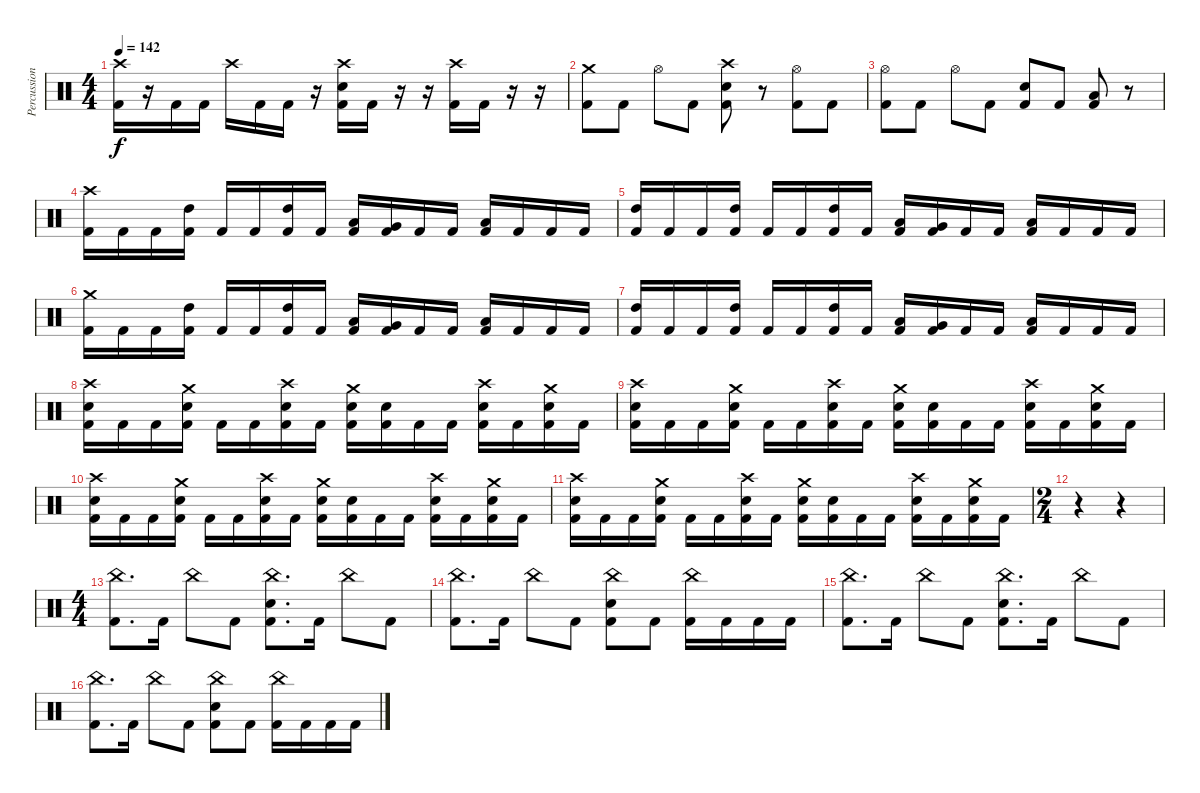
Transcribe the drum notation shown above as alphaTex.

\track ("Percussion" "Percussion") {instrument percussion}
\staff {score}
\articulation defaults
\ts (4 4)
\tempo 142
\clef neutral
\ks c
("Crash high (hit)" "Kick (hit) 2").16{dy f} r.16 "Kick (hit) 2".16 "Kick (hit) 2".16 "Crash high (hit)".16 "Kick (hit) 2".16 "Kick (hit) 2".16 r.16 ("Crash high (hit)" "Snare (hit) 2" "Kick (hit) 2").16 "Kick (hit) 2".16 r.16 r.16 ("Crash high (hit)" "Kick (hit) 2").16 "Kick (hit) 2".16 r.16 r.16 |
("Crash medium (hit)" "Kick (hit) 2").8 "Kick (hit) 2".8 "Hi-Hat (open)".8 "Kick (hit) 2".8 ("Crash high (hit)" "Snare (hit) 2" "Kick (hit) 2").8 r.8 ("Hi-Hat (open)" "Kick (hit) 2").8 "Kick (hit) 2".8 |
("Hi-Hat (open)" "Kick (hit) 2").8 "Kick (hit) 2".8 "Hi-Hat (open)".8 "Kick (hit) 2".8 ("Snare (hit) 2" "Kick (hit) 2").8 "Kick (hit) 2".8 ("Low Floor Tom (hit)" "Kick (hit) 2").8 r.8 |
("Crash high (hit)" "Kick (hit) 2").16 "Kick (hit) 2".16 "Kick (hit) 2".16 ("High Tom (hit)" "Kick (hit) 2").16 "Kick (hit) 2".16 "Kick (hit) 2".16 ("High Tom (hit)" "Kick (hit) 2").16 "Kick (hit) 2".16 ("Low Floor Tom (hit)" "Kick (hit) 2").16 ("Very Low Tom (hit)" "Kick (hit) 2").16 "Kick (hit) 2".16 "Kick (hit) 2".16 ("Low Floor Tom (hit)" "Kick (hit) 2").16 "Kick (hit) 2".16 "Kick (hit) 2".16 "Kick (hit) 2".16 |
("High Tom (hit)" "Kick (hit) 2").16 "Kick (hit) 2".16 "Kick (hit) 2".16 ("High Tom (hit)" "Kick (hit) 2").16 "Kick (hit) 2".16 "Kick (hit) 2".16 ("High Tom (hit)" "Kick (hit) 2").16 "Kick (hit) 2".16 ("Low Floor Tom (hit)" "Kick (hit) 2").16 ("Very Low Tom (hit)" "Kick (hit) 2").16 "Kick (hit) 2".16 "Kick (hit) 2".16 ("Low Floor Tom (hit)" "Kick (hit) 2").16 "Kick (hit) 2".16 "Kick (hit) 2".16 "Kick (hit) 2".16 |
("Crash medium (hit)" "Kick (hit) 2").16 "Kick (hit) 2".16 "Kick (hit) 2".16 ("High Tom (hit)" "Kick (hit) 2").16 "Kick (hit) 2".16 "Kick (hit) 2".16 ("High Tom (hit)" "Kick (hit) 2").16 "Kick (hit) 2".16 ("Low Floor Tom (hit)" "Kick (hit) 2").16 ("Very Low Tom (hit)" "Kick (hit) 2").16 "Kick (hit) 2".16 "Kick (hit) 2".16 ("Low Floor Tom (hit)" "Kick (hit) 2").16 "Kick (hit) 2".16 "Kick (hit) 2".16 "Kick (hit) 2".16 |
("High Tom (hit)" "Kick (hit) 2").16 "Kick (hit) 2".16 "Kick (hit) 2".16 ("High Tom (hit)" "Kick (hit) 2").16 "Kick (hit) 2".16 "Kick (hit) 2".16 ("High Tom (hit)" "Kick (hit) 2").16 "Kick (hit) 2".16 ("Low Floor Tom (hit)" "Kick (hit) 2").16 ("Very Low Tom (hit)" "Kick (hit) 2").16 "Kick (hit) 2".16 "Kick (hit) 2".16 ("Low Floor Tom (hit)" "Kick (hit) 2").16 "Kick (hit) 2".16 "Kick (hit) 2".16 "Kick (hit) 2".16 |
("Crash high (hit)" "Snare (hit) 2" "Kick (hit) 2").16 "Kick (hit) 2".16 "Kick (hit) 2".16 ("Crash medium (hit)" "Snare (hit) 2" "Kick (hit) 2").16 "Kick (hit) 2".16 "Kick (hit) 2".16 ("Crash high (hit)" "Snare (hit) 2" "Kick (hit) 2").16 "Kick (hit) 2".16 ("Crash medium (hit)" "Snare (hit) 2" "Kick (hit) 2").16 ("Snare (hit) 2" "Kick (hit) 2").16 "Kick (hit) 2".16 "Kick (hit) 2".16 ("Crash high (hit)" "Snare (hit) 2" "Kick (hit) 2").16 "Kick (hit) 2".16 ("Crash medium (hit)" "Snare (hit) 2" "Kick (hit) 2").16 "Kick (hit) 2".16 |
("Crash high (hit)" "Snare (hit) 2" "Kick (hit) 2").16 "Kick (hit) 2".16 "Kick (hit) 2".16 ("Crash medium (hit)" "Snare (hit) 2" "Kick (hit) 2").16 "Kick (hit) 2".16 "Kick (hit) 2".16 ("Crash high (hit)" "Snare (hit) 2" "Kick (hit) 2").16 "Kick (hit) 2".16 ("Crash medium (hit)" "Snare (hit) 2" "Kick (hit) 2").16 ("Snare (hit) 2" "Kick (hit) 2").16 "Kick (hit) 2".16 "Kick (hit) 2".16 ("Crash high (hit)" "Snare (hit) 2" "Kick (hit) 2").16 "Kick (hit) 2".16 ("Crash medium (hit)" "Snare (hit) 2" "Kick (hit) 2").16 "Kick (hit) 2".16 |
("Crash high (hit)" "Snare (hit) 2" "Kick (hit) 2").16 "Kick (hit) 2".16 "Kick (hit) 2".16 ("Crash medium (hit)" "Snare (hit) 2" "Kick (hit) 2").16 "Kick (hit) 2".16 "Kick (hit) 2".16 ("Crash high (hit)" "Snare (hit) 2" "Kick (hit) 2").16 "Kick (hit) 2".16 ("Crash medium (hit)" "Snare (hit) 2" "Kick (hit) 2").16 ("Snare (hit) 2" "Kick (hit) 2").16 "Kick (hit) 2".16 "Kick (hit) 2".16 ("Crash high (hit)" "Snare (hit) 2" "Kick (hit) 2").16 "Kick (hit) 2".16 ("Crash medium (hit)" "Snare (hit) 2" "Kick (hit) 2").16 "Kick (hit) 2".16 |
("Crash high (hit)" "Snare (hit) 2" "Kick (hit) 2").16 "Kick (hit) 2".16 "Kick (hit) 2".16 ("Crash medium (hit)" "Snare (hit) 2" "Kick (hit) 2").16 "Kick (hit) 2".16 "Kick (hit) 2".16 ("Crash high (hit)" "Snare (hit) 2" "Kick (hit) 2").16 "Kick (hit) 2".16 ("Crash medium (hit)" "Snare (hit) 2" "Kick (hit) 2").16 ("Snare (hit) 2" "Kick (hit) 2").16 "Kick (hit) 2".16 "Kick (hit) 2".16 ("Crash high (hit)" "Snare (hit) 2" "Kick (hit) 2").16 "Kick (hit) 2".16 ("Crash medium (hit)" "Snare (hit) 2" "Kick (hit) 2").16 "Kick (hit) 2".16 |
\ts (2 4)
r.4 r.4 |
\ts (4 4)
("China (hit)" "Kick (hit) 2").8{d} "Kick (hit) 2".16 "China (hit)".8 "Kick (hit) 2".8 ("China (hit)" "Snare (hit) 2" "Kick (hit) 2").8{d} "Kick (hit) 2".16 "China (hit)".8 "Kick (hit) 2".8 |
("China (hit)" "Kick (hit) 2").8{d} "Kick (hit) 2".16 "China (hit)".8 "Kick (hit) 2".8 ("China (hit)" "Snare (hit) 2" "Kick (hit) 2").8 "Kick (hit) 2".8 ("China (hit)" "Kick (hit) 2").16 "Kick (hit) 2".16 "Kick (hit) 2".16 "Kick (hit) 2".16 |
("China (hit)" "Kick (hit) 2").8{d} "Kick (hit) 2".16 "China (hit)".8 "Kick (hit) 2".8 ("China (hit)" "Snare (hit) 2" "Kick (hit) 2").8{d} "Kick (hit) 2".16 "China (hit)".8 "Kick (hit) 2".8 |
("China (hit)" "Kick (hit) 2").8{d} "Kick (hit) 2".16 "China (hit)".8 "Kick (hit) 2".8 ("China (hit)" "Snare (hit) 2" "Kick (hit) 2").8 "Kick (hit) 2".8 ("China (hit)" "Kick (hit) 2").16 "Kick (hit) 2".16 "Kick (hit) 2".16 "Kick (hit) 2".16
